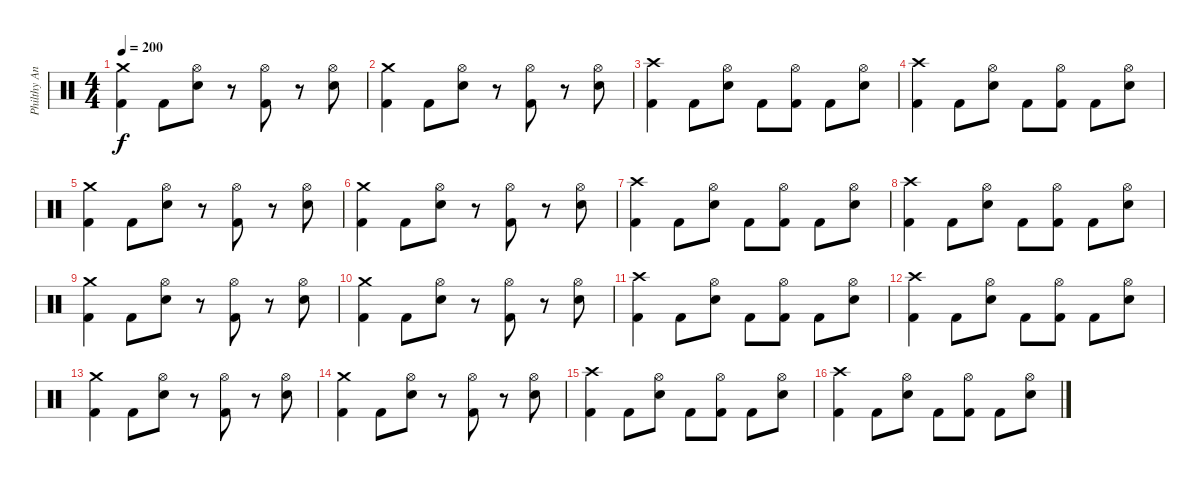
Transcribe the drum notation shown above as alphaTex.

\track ("Philthy Animal Taylor" "Philthy An") {instrument percussion}
\staff {score}
\articulation defaults
\ts (4 4)
\tempo 200
\clef neutral
\ks c
("Crash medium (hit)" "Kick (hit) 2").4{dy f} "Kick (hit) 2".8 ("Hi-Hat (open)" "Electric Snare (hit)").8 r.8 ("Hi-Hat (open)" "Kick (hit) 2").8 r.8 ("Hi-Hat (open)" "Electric Snare (hit)").8 |
("Crash medium (hit)" "Kick (hit) 2").4 "Kick (hit) 2".8 ("Hi-Hat (open)" "Electric Snare (hit)").8 r.8 ("Hi-Hat (open)" "Kick (hit) 2").8 r.8 ("Hi-Hat (open)" "Electric Snare (hit)").8 |
("Crash high (hit)" "Kick (hit) 2").4 "Kick (hit) 2".8 ("Hi-Hat (open)" "Electric Snare (hit)").8 "Kick (hit) 2".8 ("Hi-Hat (open)" "Kick (hit) 2").8 "Kick (hit) 2".8 ("Hi-Hat (open)" "Electric Snare (hit)").8 |
("Crash high (hit)" "Kick (hit) 2").4 "Kick (hit) 2".8 ("Hi-Hat (open)" "Electric Snare (hit)").8 "Kick (hit) 2".8 ("Hi-Hat (open)" "Kick (hit) 2").8 "Kick (hit) 2".8 ("Hi-Hat (open)" "Electric Snare (hit)").8 |
("Crash medium (hit)" "Kick (hit) 2").4 "Kick (hit) 2".8 ("Hi-Hat (open)" "Electric Snare (hit)").8 r.8 ("Hi-Hat (open)" "Kick (hit) 2").8 r.8 ("Hi-Hat (open)" "Electric Snare (hit)").8 |
("Crash medium (hit)" "Kick (hit) 2").4 "Kick (hit) 2".8 ("Hi-Hat (open)" "Electric Snare (hit)").8 r.8 ("Hi-Hat (open)" "Kick (hit) 2").8 r.8 ("Hi-Hat (open)" "Electric Snare (hit)").8 |
("Crash high (hit)" "Kick (hit) 2").4 "Kick (hit) 2".8 ("Hi-Hat (open)" "Electric Snare (hit)").8 "Kick (hit) 2".8 ("Hi-Hat (open)" "Kick (hit) 2").8 "Kick (hit) 2".8 ("Hi-Hat (open)" "Electric Snare (hit)").8 |
("Crash high (hit)" "Kick (hit) 2").4 "Kick (hit) 2".8 ("Hi-Hat (open)" "Electric Snare (hit)").8 "Kick (hit) 2".8 ("Hi-Hat (open)" "Kick (hit) 2").8 "Kick (hit) 2".8 ("Hi-Hat (open)" "Electric Snare (hit)").8 |
("Crash medium (hit)" "Kick (hit) 2").4 "Kick (hit) 2".8 ("Hi-Hat (open)" "Electric Snare (hit)").8 r.8 ("Hi-Hat (open)" "Kick (hit) 2").8 r.8 ("Hi-Hat (open)" "Electric Snare (hit)").8 |
("Crash medium (hit)" "Kick (hit) 2").4 "Kick (hit) 2".8 ("Hi-Hat (open)" "Electric Snare (hit)").8 r.8 ("Hi-Hat (open)" "Kick (hit) 2").8 r.8 ("Hi-Hat (open)" "Electric Snare (hit)").8 |
("Crash high (hit)" "Kick (hit) 2").4 "Kick (hit) 2".8 ("Hi-Hat (open)" "Electric Snare (hit)").8 "Kick (hit) 2".8 ("Hi-Hat (open)" "Kick (hit) 2").8 "Kick (hit) 2".8 ("Hi-Hat (open)" "Electric Snare (hit)").8 |
("Crash high (hit)" "Kick (hit) 2").4 "Kick (hit) 2".8 ("Hi-Hat (open)" "Electric Snare (hit)").8 "Kick (hit) 2".8 ("Hi-Hat (open)" "Kick (hit) 2").8 "Kick (hit) 2".8 ("Hi-Hat (open)" "Electric Snare (hit)").8 |
("Crash medium (hit)" "Kick (hit) 2").4 "Kick (hit) 2".8 ("Hi-Hat (open)" "Electric Snare (hit)").8 r.8 ("Hi-Hat (open)" "Kick (hit) 2").8 r.8 ("Hi-Hat (open)" "Electric Snare (hit)").8 |
("Crash medium (hit)" "Kick (hit) 2").4 "Kick (hit) 2".8 ("Hi-Hat (open)" "Electric Snare (hit)").8 r.8 ("Hi-Hat (open)" "Kick (hit) 2").8 r.8 ("Hi-Hat (open)" "Electric Snare (hit)").8 |
("Crash high (hit)" "Kick (hit) 2").4 "Kick (hit) 2".8 ("Hi-Hat (open)" "Electric Snare (hit)").8 "Kick (hit) 2".8 ("Hi-Hat (open)" "Kick (hit) 2").8 "Kick (hit) 2".8 ("Hi-Hat (open)" "Electric Snare (hit)").8 |
("Crash high (hit)" "Kick (hit) 2").4 "Kick (hit) 2".8 ("Hi-Hat (open)" "Electric Snare (hit)").8 "Kick (hit) 2".8 ("Hi-Hat (open)" "Kick (hit) 2").8 "Kick (hit) 2".8 ("Hi-Hat (open)" "Electric Snare (hit)").8
